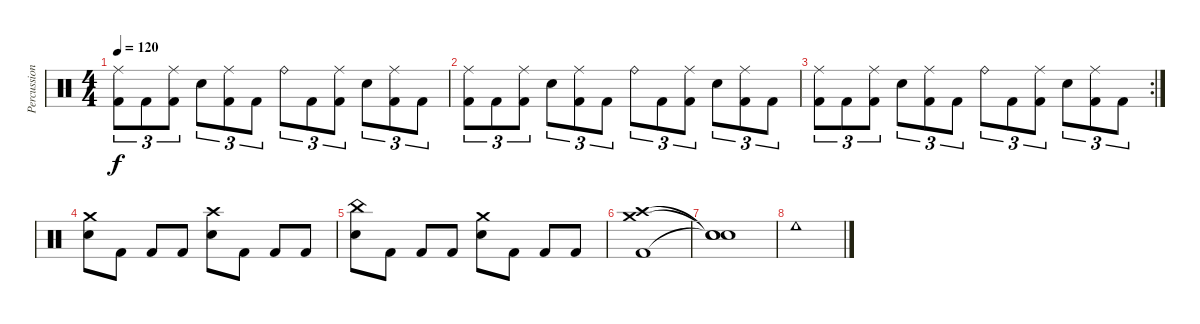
\track ("Percussions" "Percussion") {instrument percussion}
\staff {score}
\articulation defaults
\ts (4 4)
\tempo 120
\clef neutral
\ks c
("Ride (middle)" "Kick (hit) 2").8{tu (3 2) dy f} "Kick (hit) 2".8{tu (3 2)} ("Ride (middle)" "Kick (hit) 2").8{tu (3 2)} "Electric Snare (hit)".8{tu (3 2)} ("Ride (middle)" "Kick (hit) 2").8{tu (3 2)} "Kick (hit) 2".8{tu (3 2)} "Ride (bell)".8{tu (3 2)} "Kick (hit) 2".8{tu (3 2)} ("Ride (middle)" "Kick (hit) 2").8{tu (3 2)} "Electric Snare (hit)".8{tu (3 2)} ("Ride (middle)" "Kick (hit) 2").8{tu (3 2)} "Kick (hit) 2".8{tu (3 2)} |
("Ride (middle)" "Kick (hit) 2").8{tu (3 2)} "Kick (hit) 2".8{tu (3 2)} ("Ride (middle)" "Kick (hit) 2").8{tu (3 2)} "Electric Snare (hit)".8{tu (3 2)} ("Ride (middle)" "Kick (hit) 2").8{tu (3 2)} "Kick (hit) 2".8{tu (3 2)} "Ride (bell)".8{tu (3 2)} "Kick (hit) 2".8{tu (3 2)} ("Ride (middle)" "Kick (hit) 2").8{tu (3 2)} "Electric Snare (hit)".8{tu (3 2)} ("Ride (middle)" "Kick (hit) 2").8{tu (3 2)} "Kick (hit) 2".8{tu (3 2)} |
\rc 2
("Ride (middle)" "Kick (hit) 2").8{tu (3 2)} "Kick (hit) 2".8{tu (3 2)} ("Ride (middle)" "Kick (hit) 2").8{tu (3 2)} "Electric Snare (hit)".8{tu (3 2)} ("Ride (middle)" "Kick (hit) 2").8{tu (3 2)} "Kick (hit) 2".8{tu (3 2)} "Ride (bell)".8{tu (3 2)} "Kick (hit) 2".8{tu (3 2)} ("Ride (middle)" "Kick (hit) 2").8{tu (3 2)} "Electric Snare (hit)".8{tu (3 2)} ("Ride (middle)" "Kick (hit) 2").8{tu (3 2)} "Kick (hit) 2".8{tu (3 2)} |
("Crash medium (hit)" "Electric Snare (hit)").8 "Kick (hit) 2".8 "Kick (hit) 2".8 "Kick (hit) 2".8 ("Crash high (hit)" "Electric Snare (hit)").8 "Kick (hit) 2".8 "Kick (hit) 2".8 "Kick (hit) 2".8 |
("China (hit)" "Electric Snare (hit)").8 "Kick (hit) 2".8 "Kick (hit) 2".8 "Kick (hit) 2".8 ("Crash medium (hit)" "Electric Snare (hit)").8 "Kick (hit) 2".8 "Kick (hit) 2".8 "Kick (hit) 2".8 |
("Crash medium (hit)" "Crash high (hit)" "Kick (hit) 2").1 |
("Snare (hit)"{t} "Snare (hit)"{t} "Snare (hit)"{t}).1 |
"Cowbell low (hit)".1
